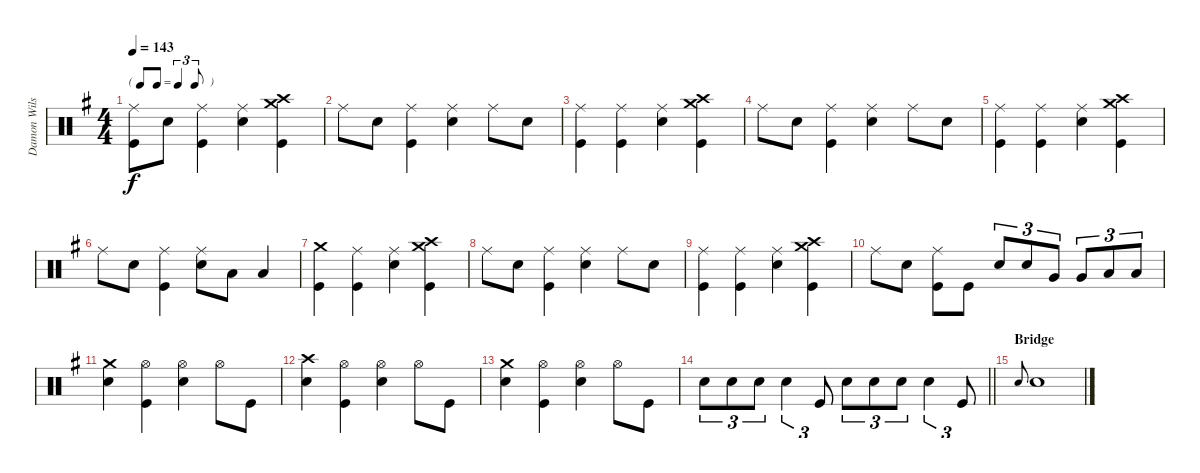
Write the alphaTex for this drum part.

\track ("Damon Wilson" "Damon Wils") {instrument percussion}
\staff {score}
\articulation defaults
\ts (4 4)
\tf triplet8th
\tempo 143
\clef neutral
\ks g
("Ride (middle)" "Kick (hit)").8{dy f} "Electric Snare (hit)".8 ("Ride (middle)" "Kick (hit)").4 ("Ride (middle)" "Electric Snare (hit)").4 ("Crash high (hit)" "Crash medium (hit)" "Kick (hit)").4 |
"Ride (middle)".8 "Electric Snare (hit)".8 ("Ride (middle)" "Kick (hit)").4 ("Ride (middle)" "Electric Snare (hit)").4 "Ride (middle)".8 "Electric Snare (hit)".8 |
("Ride (middle)" "Kick (hit)").4 ("Ride (middle)" "Kick (hit)").4 ("Ride (middle)" "Electric Snare (hit)").4 ("Crash high (hit)" "Crash medium (hit)" "Kick (hit)").4 |
"Ride (middle)".8 "Electric Snare (hit)".8 ("Ride (middle)" "Kick (hit)").4 ("Ride (middle)" "Electric Snare (hit)").4 "Ride (middle)".8 "Electric Snare (hit)".8 |
("Ride (middle)" "Kick (hit)").4 ("Ride (middle)" "Kick (hit)").4 ("Ride (middle)" "Electric Snare (hit)").4 ("Crash high (hit)" "Crash medium (hit)" "Kick (hit)").4 |
"Ride (middle)".8 "Electric Snare (hit)".8 ("Ride (middle)" "Kick (hit)").4 ("Ride (middle)" "Electric Snare (hit)").8 "Low Tom (hit)".8 "Low Floor Tom (hit)".4 |
("Crash medium (hit)" "Kick (hit)").4 ("Ride (middle)" "Kick (hit)").4 ("Ride (middle)" "Electric Snare (hit)").4 ("Crash high (hit)" "Crash medium (hit)" "Kick (hit)").4 |
"Ride (middle)".8 "Electric Snare (hit)".8 ("Ride (middle)" "Kick (hit)").4 ("Ride (middle)" "Electric Snare (hit)").4 "Ride (middle)".8 "Electric Snare (hit)".8 |
("Ride (middle)" "Kick (hit)").4 ("Ride (middle)" "Kick (hit)").4 ("Ride (middle)" "Electric Snare (hit)").4 ("Crash high (hit)" "Crash medium (hit)" "Kick (hit)").4 |
"Ride (middle)".8 "Electric Snare (hit)".8 ("Ride (middle)" "Kick (hit)").8 "Kick (hit)".8 "Electric Snare (hit)".8{tu (3 2)} "Electric Snare (hit)".8{tu (3 2)} "Very Low Tom (hit)".8{tu (3 2)} "Very Low Tom (hit)".8{tu (3 2)} "Low Floor Tom (hit)".8{tu (3 2)} "Low Floor Tom (hit)".8{tu (3 2)} |
("Crash medium (hit)" "Electric Snare (hit)").4 ("Hi-Hat (open)" "Kick (hit)").4 ("Hi-Hat (open)" "Electric Snare (hit)").4 "Hi-Hat (open)".8 "Kick (hit)".8 |
("Crash high (hit)" "Electric Snare (hit)").4 ("Hi-Hat (open)" "Kick (hit)").4 ("Hi-Hat (open)" "Electric Snare (hit)").4 "Hi-Hat (open)".8 "Kick (hit)".8 |
("Crash medium (hit)" "Electric Snare (hit)").4 ("Hi-Hat (open)" "Kick (hit)").4 ("Hi-Hat (open)" "Electric Snare (hit)").4 "Hi-Hat (open)".8 "Kick (hit)".8 |
\barLineRight lightlight "Electric Snare (hit)".8{tu (3 2)} "Electric Snare (hit)".8{tu (3 2)} "Electric Snare (hit)".8{tu (3 2)} "Electric Snare (hit)".4{tu (3 2)} "Kick (hit)".8{tu (3 2)} "Electric Snare (hit)".8{tu (3 2)} "Electric Snare (hit)".8{tu (3 2)} "Electric Snare (hit)".8{tu (3 2)} "Electric Snare (hit)".4{tu (3 2)} "Kick (hit)".8{tu (3 2)}
|
\section ("" "Bridge")
"Electric Snare (hit)".8{gr onbeat} "Electric Snare (hit)".1
